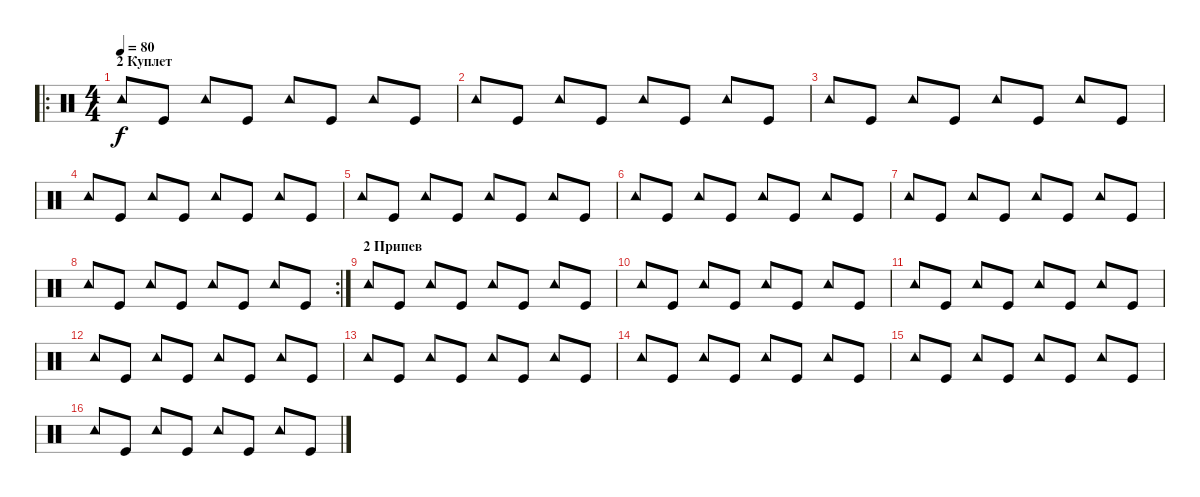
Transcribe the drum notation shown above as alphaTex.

\track "" {instrument percussion}
\staff {score}
\articulation defaults
\ro
\ts (4 4)
\section ("" "2 Куплет")
\tempo 80
\clef neutral
\ks c "Tambourine (hit)".8{dy f} "Kick (hit)".8 "Tambourine (hit)".8 "Kick (hit)".8 "Tambourine (hit)".8 "Kick (hit)".8 "Tambourine (hit)".8 "Kick (hit)".8
|
"Tambourine (hit)".8 "Kick (hit)".8 "Tambourine (hit)".8 "Kick (hit)".8 "Tambourine (hit)".8 "Kick (hit)".8 "Tambourine (hit)".8 "Kick (hit)".8 |
"Tambourine (hit)".8 "Kick (hit)".8 "Tambourine (hit)".8 "Kick (hit)".8 "Tambourine (hit)".8 "Kick (hit)".8 "Tambourine (hit)".8 "Kick (hit)".8 |
"Tambourine (hit)".8 "Kick (hit)".8 "Tambourine (hit)".8 "Kick (hit)".8 "Tambourine (hit)".8 "Kick (hit)".8 "Tambourine (hit)".8 "Kick (hit)".8 |
"Tambourine (hit)".8 "Kick (hit)".8 "Tambourine (hit)".8 "Kick (hit)".8 "Tambourine (hit)".8 "Kick (hit)".8 "Tambourine (hit)".8 "Kick (hit)".8 |
"Tambourine (hit)".8 "Kick (hit)".8 "Tambourine (hit)".8 "Kick (hit)".8 "Tambourine (hit)".8 "Kick (hit)".8 "Tambourine (hit)".8 "Kick (hit)".8 |
"Tambourine (hit)".8 "Kick (hit)".8 "Tambourine (hit)".8 "Kick (hit)".8 "Tambourine (hit)".8 "Kick (hit)".8 "Tambourine (hit)".8 "Kick (hit)".8 |
\rc 2 "Tambourine (hit)".8 "Kick (hit)".8 "Tambourine (hit)".8 "Kick (hit)".8 "Tambourine (hit)".8 "Kick (hit)".8 "Tambourine (hit)".8 "Kick (hit)".8
|
\section ("" "2 Припев")
"Tambourine (hit)".8 "Kick (hit)".8 "Tambourine (hit)".8 "Kick (hit)".8 "Tambourine (hit)".8 "Kick (hit)".8 "Tambourine (hit)".8 "Kick (hit)".8 |
"Tambourine (hit)".8 "Kick (hit)".8 "Tambourine (hit)".8 "Kick (hit)".8 "Tambourine (hit)".8 "Kick (hit)".8 "Tambourine (hit)".8 "Kick (hit)".8 |
"Tambourine (hit)".8 "Kick (hit)".8 "Tambourine (hit)".8 "Kick (hit)".8 "Tambourine (hit)".8 "Kick (hit)".8 "Tambourine (hit)".8 "Kick (hit)".8 |
"Tambourine (hit)".8 "Kick (hit)".8 "Tambourine (hit)".8 "Kick (hit)".8 "Tambourine (hit)".8 "Kick (hit)".8 "Tambourine (hit)".8 "Kick (hit)".8 |
"Tambourine (hit)".8 "Kick (hit)".8 "Tambourine (hit)".8 "Kick (hit)".8 "Tambourine (hit)".8 "Kick (hit)".8 "Tambourine (hit)".8 "Kick (hit)".8 |
"Tambourine (hit)".8 "Kick (hit)".8 "Tambourine (hit)".8 "Kick (hit)".8 "Tambourine (hit)".8 "Kick (hit)".8 "Tambourine (hit)".8 "Kick (hit)".8 |
"Tambourine (hit)".8 "Kick (hit)".8 "Tambourine (hit)".8 "Kick (hit)".8 "Tambourine (hit)".8 "Kick (hit)".8 "Tambourine (hit)".8 "Kick (hit)".8 |
"Tambourine (hit)".8 "Kick (hit)".8 "Tambourine (hit)".8 "Kick (hit)".8 "Tambourine (hit)".8 "Kick (hit)".8 "Tambourine (hit)".8 "Kick (hit)".8
